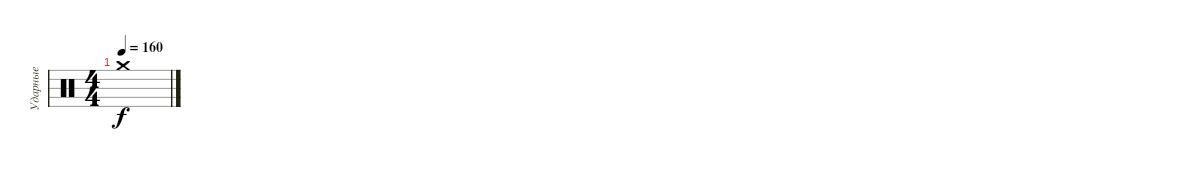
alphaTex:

\track ("Ударные" "Ударные") {instrument percussion}
\staff {score}
\articulation defaults
\ts (4 4)
\tempo 160
\clef neutral
\ks c "Crash medium (hit)".1{dy f}
